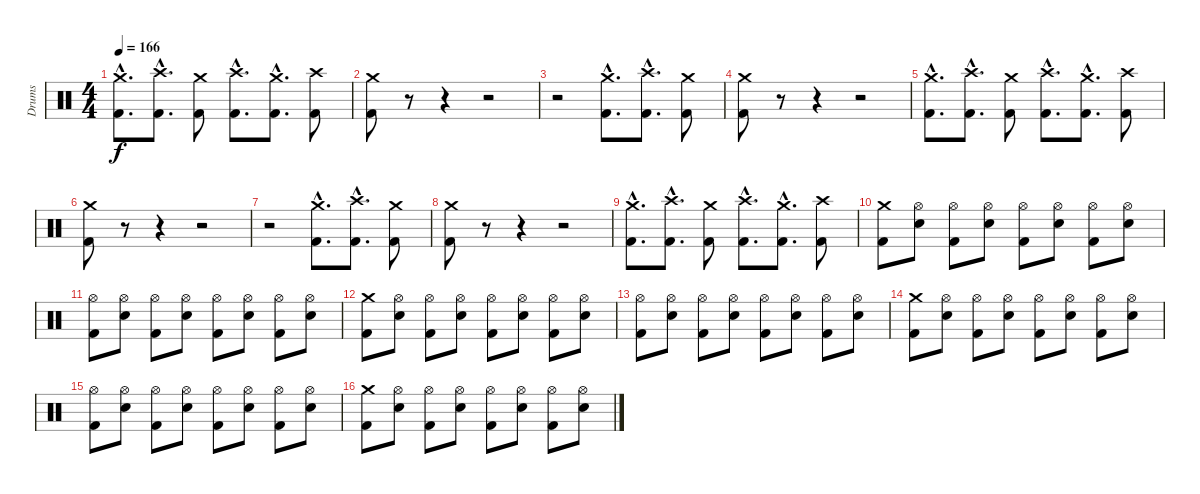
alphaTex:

\track ("Drums" "Drums") {instrument percussion}
\staff {score}
\articulation defaults
\ts (4 4)
\tempo 166
\clef neutral
\ks c
("Crash medium (hit)"{hac} "Kick (hit) 2"{hac}).8{d dy f} ("Crash high (hit)"{hac} "Kick (hit) 2"{hac}).8{d} ("Crash medium (hit)" "Kick (hit) 2").8 ("Crash high (hit)"{hac} "Kick (hit) 2"{hac}).8{d} ("Crash medium (hit)"{hac} "Kick (hit) 2"{hac}).8{d} ("Crash high (hit)" "Kick (hit) 2").8 |
("Crash medium (hit)" "Kick (hit) 2").8 r.8 r.4 r.2 |
r.2 ("Crash medium (hit)"{hac} "Kick (hit) 2"{hac}).8{d} ("Crash high (hit)"{hac} "Kick (hit) 2"{hac}).8{d} ("Crash medium (hit)" "Kick (hit) 2").8 |
("Crash medium (hit)" "Kick (hit) 2").8 r.8 r.4 r.2 |
("Crash medium (hit)"{hac} "Kick (hit) 2"{hac}).8{d} ("Crash high (hit)"{hac} "Kick (hit) 2"{hac}).8{d} ("Crash medium (hit)" "Kick (hit) 2").8 ("Crash high (hit)"{hac} "Kick (hit) 2"{hac}).8{d} ("Crash medium (hit)"{hac} "Kick (hit) 2"{hac}).8{d} ("Crash high (hit)" "Kick (hit) 2").8 |
("Crash medium (hit)" "Kick (hit) 2").8 r.8 r.4 r.2 |
r.2 ("Crash medium (hit)"{hac} "Kick (hit) 2"{hac}).8{d} ("Crash high (hit)"{hac} "Kick (hit) 2"{hac}).8{d} ("Crash medium (hit)" "Kick (hit) 2").8 |
("Crash medium (hit)" "Kick (hit) 2").8 r.8 r.4 r.2 |
("Crash medium (hit)"{hac} "Kick (hit) 2"{hac}).8{d} ("Crash high (hit)"{hac} "Kick (hit) 2"{hac}).8{d} ("Crash medium (hit)" "Kick (hit) 2").8 ("Crash high (hit)"{hac} "Kick (hit) 2"{hac}).8{d} ("Crash medium (hit)"{hac} "Kick (hit) 2"{hac}).8{d} ("Crash high (hit)" "Kick (hit) 2").8 |
("Crash medium (hit)" "Kick (hit) 2").8 ("Hi-Hat (open)" "Snare (hit) 2").8 ("Hi-Hat (open)" "Kick (hit) 2").8 ("Hi-Hat (open)" "Snare (hit) 2").8 ("Hi-Hat (open)" "Kick (hit) 2").8 ("Hi-Hat (open)" "Snare (hit) 2").8 ("Hi-Hat (open)" "Kick (hit) 2").8 ("Hi-Hat (open)" "Snare (hit) 2").8 |
("Hi-Hat (open)" "Kick (hit) 2").8 ("Hi-Hat (open)" "Snare (hit) 2").8 ("Hi-Hat (open)" "Kick (hit) 2").8 ("Hi-Hat (open)" "Snare (hit) 2").8 ("Hi-Hat (open)" "Kick (hit) 2").8 ("Hi-Hat (open)" "Snare (hit) 2").8 ("Hi-Hat (open)" "Kick (hit) 2").8 ("Hi-Hat (open)" "Snare (hit) 2").8 |
("Crash medium (hit)" "Kick (hit) 2").8 ("Hi-Hat (open)" "Snare (hit) 2").8 ("Hi-Hat (open)" "Kick (hit) 2").8 ("Hi-Hat (open)" "Snare (hit) 2").8 ("Hi-Hat (open)" "Kick (hit) 2").8 ("Hi-Hat (open)" "Snare (hit) 2").8 ("Hi-Hat (open)" "Kick (hit) 2").8 ("Hi-Hat (open)" "Snare (hit) 2").8 |
("Hi-Hat (open)" "Kick (hit) 2").8 ("Hi-Hat (open)" "Snare (hit) 2").8 ("Hi-Hat (open)" "Kick (hit) 2").8 ("Hi-Hat (open)" "Snare (hit) 2").8 ("Hi-Hat (open)" "Kick (hit) 2").8 ("Hi-Hat (open)" "Snare (hit) 2").8 ("Hi-Hat (open)" "Kick (hit) 2").8 ("Hi-Hat (open)" "Snare (hit) 2").8 |
("Crash medium (hit)" "Kick (hit) 2").8 ("Hi-Hat (open)" "Snare (hit) 2").8 ("Hi-Hat (open)" "Kick (hit) 2").8 ("Hi-Hat (open)" "Snare (hit) 2").8 ("Hi-Hat (open)" "Kick (hit) 2").8 ("Hi-Hat (open)" "Snare (hit) 2").8 ("Hi-Hat (open)" "Kick (hit) 2").8 ("Hi-Hat (open)" "Snare (hit) 2").8 |
("Hi-Hat (open)" "Kick (hit) 2").8 ("Hi-Hat (open)" "Snare (hit) 2").8 ("Hi-Hat (open)" "Kick (hit) 2").8 ("Hi-Hat (open)" "Snare (hit) 2").8 ("Hi-Hat (open)" "Kick (hit) 2").8 ("Hi-Hat (open)" "Snare (hit) 2").8 ("Hi-Hat (open)" "Kick (hit) 2").8 ("Hi-Hat (open)" "Snare (hit) 2").8 |
("Crash medium (hit)" "Kick (hit) 2").8 ("Hi-Hat (open)" "Snare (hit) 2").8 ("Hi-Hat (open)" "Kick (hit) 2").8 ("Hi-Hat (open)" "Snare (hit) 2").8 ("Hi-Hat (open)" "Kick (hit) 2").8 ("Hi-Hat (open)" "Snare (hit) 2").8 ("Hi-Hat (open)" "Kick (hit) 2").8 ("Hi-Hat (open)" "Snare (hit) 2").8
